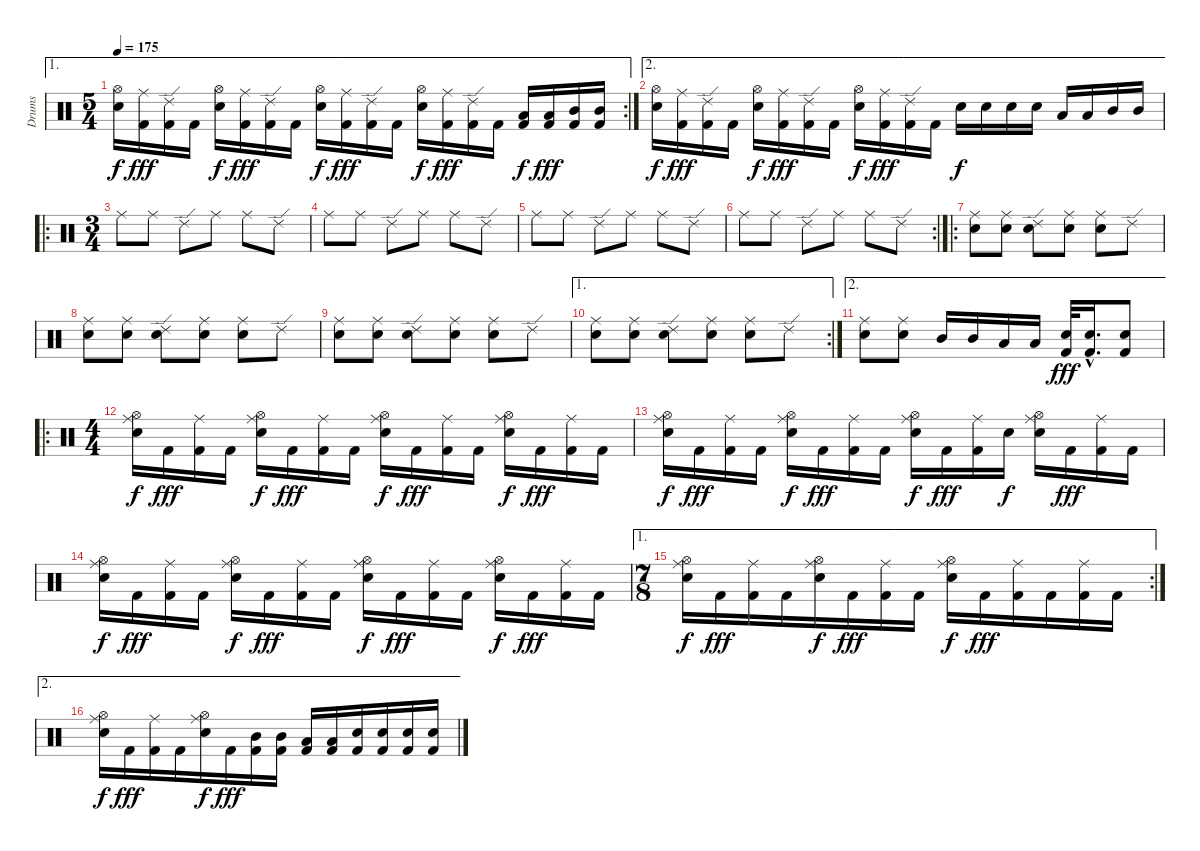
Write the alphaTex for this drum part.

\track ("Drums" "Drums") {instrument percussion}
\staff {score}
\articulation defaults
\ae 1
\rc 2
\ts (5 4)
\tempo 175
\clef neutral
\ks c
("Hi-Hat (open)" "Electric Snare (hit)").16{dy f} ("Ride (middle)" "Kick (hit) 2").16{dy fff} ("Ride (edge) 2" "Kick (hit) 2").16 "Kick (hit) 2".16 ("Hi-Hat (open)" "Electric Snare (hit)").16{dy f} ("Ride (middle)" "Kick (hit) 2").16{dy fff} ("Ride (edge) 2" "Kick (hit) 2").16 "Kick (hit) 2".16 ("Hi-Hat (open)" "Electric Snare (hit)").16{dy f} ("Ride (middle)" "Kick (hit) 2").16{dy fff} ("Ride (edge) 2" "Kick (hit) 2").16 "Kick (hit) 2".16 ("Hi-Hat (open)" "Electric Snare (hit)").16{dy f} ("Ride (middle)" "Kick (hit) 2").16{dy fff} ("Ride (edge) 2" "Kick (hit) 2").16 "Kick (hit) 2".16 ("Low Tom (hit)" "Kick (hit) 2").16{dy f} ("Low Tom (hit)" "Kick (hit) 2").16{dy fff} ("Mid Tom (hit)" "Kick (hit) 2").16 ("Mid Tom (hit)" "Kick (hit) 2").16 |
\ae 2
("Hi-Hat (open)" "Electric Snare (hit)").16{dy f} ("Ride (middle)" "Kick (hit) 2").16{dy fff} ("Ride (edge) 2" "Kick (hit) 2").16 "Kick (hit) 2".16 ("Hi-Hat (open)" "Electric Snare (hit)").16{dy f} ("Ride (middle)" "Kick (hit) 2").16{dy fff} ("Ride (edge) 2" "Kick (hit) 2").16 "Kick (hit) 2".16 ("Hi-Hat (open)" "Electric Snare (hit)").16{dy f} ("Ride (middle)" "Kick (hit) 2").16{dy fff} ("Ride (edge) 2" "Kick (hit) 2").16 "Kick (hit) 2".16 "Electric Snare (hit)".16{dy f} "Electric Snare (hit)".16 "Electric Snare (hit)".16 "Electric Snare (hit)".16 "Low Tom (hit)".16 "Low Tom (hit)".16 "Mid Tom (hit)".16 "Mid Tom (hit)".16 |
\ro
\ts (3 4)
"Ride (middle)".8 "Ride (middle)".8 "Ride (edge) 2".8 "Ride (middle)".8 "Ride (middle)".8 "Ride (edge) 2".8 |
"Ride (middle)".8 "Ride (middle)".8 "Ride (edge) 2".8 "Ride (middle)".8 "Ride (middle)".8 "Ride (edge) 2".8 |
"Ride (middle)".8 "Ride (middle)".8 "Ride (edge) 2".8 "Ride (middle)".8 "Ride (middle)".8 "Ride (edge) 2".8 |
\rc 2 "Ride (middle)".8 "Ride (middle)".8 "Ride (edge) 2".8 "Ride (middle)".8 "Ride (middle)".8 "Ride (edge) 2".8
|
\ro
("Ride (middle)" "Electric Snare (hit)").8 ("Ride (middle)" "Electric Snare (hit)").8 ("Ride (edge) 2" "Electric Snare (hit)").8 ("Ride (middle)" "Electric Snare (hit)").8 ("Ride (middle)" "Electric Snare (hit)").8 "Ride (edge) 2".8 |
("Ride (middle)" "Electric Snare (hit)").8 ("Ride (middle)" "Electric Snare (hit)").8 ("Ride (edge) 2" "Electric Snare (hit)").8 ("Ride (middle)" "Electric Snare (hit)").8 ("Ride (middle)" "Electric Snare (hit)").8 "Ride (edge) 2".8 |
("Ride (middle)" "Electric Snare (hit)").8 ("Ride (middle)" "Electric Snare (hit)").8 ("Ride (edge) 2" "Electric Snare (hit)").8 ("Ride (middle)" "Electric Snare (hit)").8 ("Ride (middle)" "Electric Snare (hit)").8 "Ride (edge) 2".8 |
\ae 1
\rc 2
("Ride (middle)" "Electric Snare (hit)").8 ("Ride (middle)" "Electric Snare (hit)").8 ("Ride (edge) 2" "Electric Snare (hit)").8 ("Ride (middle)" "Electric Snare (hit)").8 ("Ride (middle)" "Electric Snare (hit)").8 "Ride (edge) 2".8 |
\ae 2
("Ride (middle)" "Electric Snare (hit)").8 ("Ride (middle)" "Electric Snare (hit)").8 "Mid Tom (hit)".16 "Mid Tom (hit)".16 "Low Tom (hit)".16 "Low Tom (hit)".16 ("Electric Snare (hit)" "Kick (hit) 2").32{dy fff} ("Electric Snare (hit)"{hac} "Kick (hit) 2"{hac}).16{d} ("Electric Snare (hit)" "Kick (hit) 2").8 |
\ro
\ts (4 4)
("Ride (middle)" "Hi-Hat (open)" "Electric Snare (hit)").16{dy f} "Kick (hit) 2".16{dy fff} ("Ride (middle)" "Kick (hit) 2").16 "Kick (hit) 2".16 ("Ride (middle)" "Hi-Hat (open)" "Electric Snare (hit)").16{dy f} "Kick (hit) 2".16{dy fff} ("Ride (middle)" "Kick (hit) 2").16 "Kick (hit) 2".16 ("Ride (middle)" "Hi-Hat (open)" "Electric Snare (hit)").16{dy f} "Kick (hit) 2".16{dy fff} ("Ride (middle)" "Kick (hit) 2").16 "Kick (hit) 2".16 ("Ride (middle)" "Hi-Hat (open)" "Electric Snare (hit)").16{dy f} "Kick (hit) 2".16{dy fff} ("Ride (middle)" "Kick (hit) 2").16 "Kick (hit) 2".16 |
("Ride (middle)" "Hi-Hat (open)" "Electric Snare (hit)").16{dy f} "Kick (hit) 2".16{dy fff} ("Ride (middle)" "Kick (hit) 2").16 "Kick (hit) 2".16 ("Ride (middle)" "Hi-Hat (open)" "Electric Snare (hit)").16{dy f} "Kick (hit) 2".16{dy fff} ("Ride (middle)" "Kick (hit) 2").16 "Kick (hit) 2".16 ("Ride (middle)" "Hi-Hat (open)" "Electric Snare (hit)").16{dy f} "Kick (hit) 2".16{dy fff} ("Ride (middle)" "Kick (hit) 2").16 "Electric Snare (hit)".16{dy f} ("Ride (middle)" "Hi-Hat (open)" "Electric Snare (hit)").16 "Kick (hit) 2".16{dy fff} ("Ride (middle)" "Kick (hit) 2").16 "Kick (hit) 2".16 |
("Ride (middle)" "Hi-Hat (open)" "Electric Snare (hit)").16{dy f} "Kick (hit) 2".16{dy fff} ("Ride (middle)" "Kick (hit) 2").16 "Kick (hit) 2".16 ("Ride (middle)" "Hi-Hat (open)" "Electric Snare (hit)").16{dy f} "Kick (hit) 2".16{dy fff} ("Ride (middle)" "Kick (hit) 2").16 "Kick (hit) 2".16 ("Ride (middle)" "Hi-Hat (open)" "Electric Snare (hit)").16{dy f} "Kick (hit) 2".16{dy fff} ("Ride (middle)" "Kick (hit) 2").16 "Kick (hit) 2".16 ("Ride (middle)" "Hi-Hat (open)" "Electric Snare (hit)").16{dy f} "Kick (hit) 2".16{dy fff} ("Ride (middle)" "Kick (hit) 2").16 "Kick (hit) 2".16 |
\ae 1
\rc 2
\ts (7 8)
("Ride (middle)" "Hi-Hat (open)" "Electric Snare (hit)").16{dy f} "Kick (hit) 2".16{dy fff} ("Ride (middle)" "Kick (hit) 2").16 "Kick (hit) 2".16 ("Ride (middle)" "Hi-Hat (open)" "Electric Snare (hit)").16{dy f} "Kick (hit) 2".16{dy fff} ("Ride (middle)" "Kick (hit) 2").16 "Kick (hit) 2".16 ("Ride (middle)" "Hi-Hat (open)" "Electric Snare (hit)").16{dy f} "Kick (hit) 2".16{dy fff} ("Ride (middle)" "Kick (hit) 2").16 "Kick (hit) 2".16 ("Ride (middle)" "Kick (hit) 2").16 "Kick (hit) 2".16 |
\ae 2
("Ride (middle)" "Hi-Hat (open)" "Electric Snare (hit)").16{dy f} "Kick (hit) 2".16{dy fff} ("Ride (middle)" "Kick (hit) 2").16 "Kick (hit) 2".16 ("Ride (middle)" "Hi-Hat (open)" "Electric Snare (hit)").16{dy f} "Kick (hit) 2".16{dy fff} ("Mid Tom (hit)" "Kick (hit) 2").16 ("Mid Tom (hit)" "Kick (hit) 2").16 ("Low Tom (hit)" "Kick (hit) 2").16 ("Low Tom (hit)" "Kick (hit) 2").16 ("Electric Snare (hit)" "Kick (hit) 2").16 ("Electric Snare (hit)" "Kick (hit) 2").16 ("Electric Snare (hit)" "Kick (hit) 2").16 ("Electric Snare (hit)" "Kick (hit) 2").16
